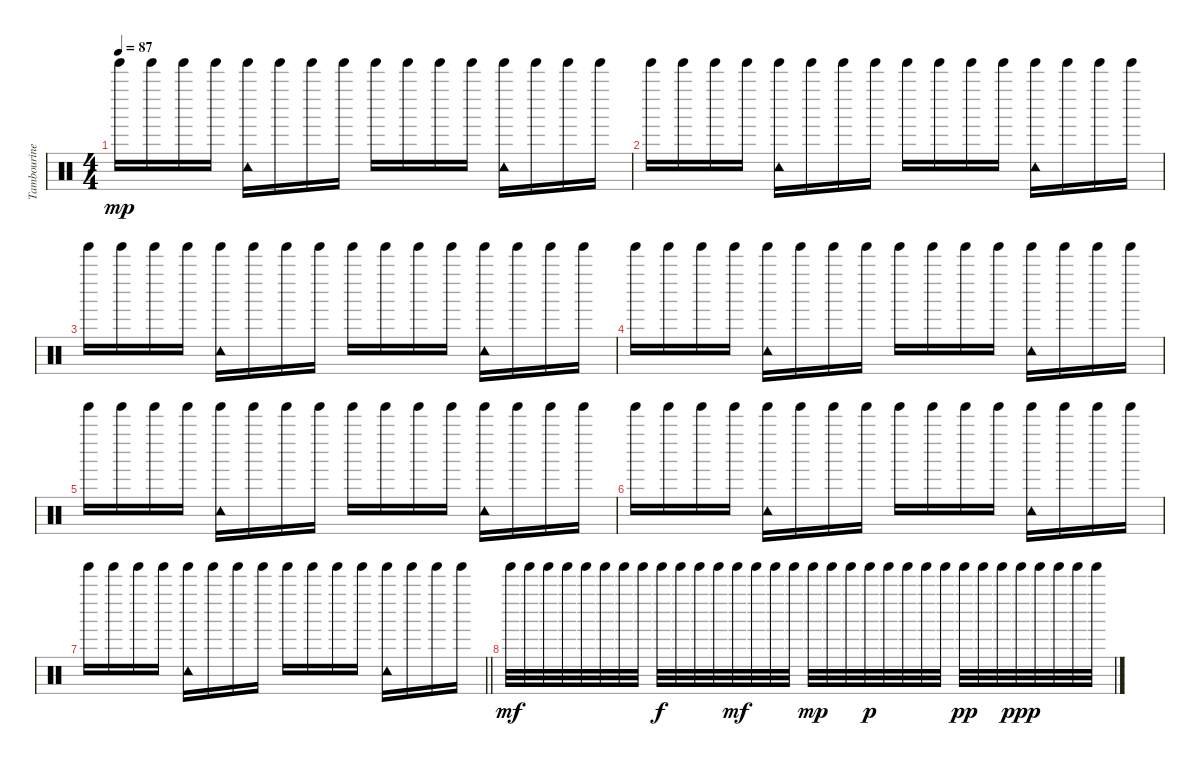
\track ("Tambourine" "Tambourine") {instrument percussion}
\staff {score}
\articulation defaults
\ts (4 4)
\tempo 87
\clef neutral
\ks c "Tinkle Bell (hit)".16{dy mp} "Tinkle Bell (hit)".16 "Tinkle Bell (hit)".16 "Tinkle Bell (hit)".16
("Tinkle Bell (hit)" "Tambourine (hit)").16 "Tinkle Bell (hit)".16 "Tinkle Bell (hit)".16 "Tinkle Bell (hit)".16 "Tinkle Bell (hit)".16 "Tinkle Bell (hit)".16 "Tinkle Bell (hit)".16 "Tinkle Bell (hit)".16 ("Tinkle Bell (hit)" "Tambourine (hit)").16 "Tinkle Bell (hit)".16 "Tinkle Bell (hit)".16 "Tinkle Bell (hit)".16 |
"Tinkle Bell (hit)".16 "Tinkle Bell (hit)".16 "Tinkle Bell (hit)".16 "Tinkle Bell (hit)".16 ("Tinkle Bell (hit)" "Tambourine (hit)").16 "Tinkle Bell (hit)".16 "Tinkle Bell (hit)".16 "Tinkle Bell (hit)".16 "Tinkle Bell (hit)".16 "Tinkle Bell (hit)".16 "Tinkle Bell (hit)".16 "Tinkle Bell (hit)".16 ("Tinkle Bell (hit)" "Tambourine (hit)").16 "Tinkle Bell (hit)".16 "Tinkle Bell (hit)".16 "Tinkle Bell (hit)".16 |
"Tinkle Bell (hit)".16 "Tinkle Bell (hit)".16 "Tinkle Bell (hit)".16 "Tinkle Bell (hit)".16 ("Tinkle Bell (hit)" "Tambourine (hit)").16 "Tinkle Bell (hit)".16 "Tinkle Bell (hit)".16 "Tinkle Bell (hit)".16 "Tinkle Bell (hit)".16 "Tinkle Bell (hit)".16 "Tinkle Bell (hit)".16 "Tinkle Bell (hit)".16 ("Tinkle Bell (hit)" "Tambourine (hit)").16 "Tinkle Bell (hit)".16 "Tinkle Bell (hit)".16 "Tinkle Bell (hit)".16 |
"Tinkle Bell (hit)".16 "Tinkle Bell (hit)".16 "Tinkle Bell (hit)".16 "Tinkle Bell (hit)".16 ("Tinkle Bell (hit)" "Tambourine (hit)").16 "Tinkle Bell (hit)".16 "Tinkle Bell (hit)".16 "Tinkle Bell (hit)".16 "Tinkle Bell (hit)".16 "Tinkle Bell (hit)".16 "Tinkle Bell (hit)".16 "Tinkle Bell (hit)".16 ("Tinkle Bell (hit)" "Tambourine (hit)").16 "Tinkle Bell (hit)".16 "Tinkle Bell (hit)".16 "Tinkle Bell (hit)".16 |
"Tinkle Bell (hit)".16 "Tinkle Bell (hit)".16 "Tinkle Bell (hit)".16 "Tinkle Bell (hit)".16 ("Tinkle Bell (hit)" "Tambourine (hit)").16 "Tinkle Bell (hit)".16 "Tinkle Bell (hit)".16 "Tinkle Bell (hit)".16 "Tinkle Bell (hit)".16 "Tinkle Bell (hit)".16 "Tinkle Bell (hit)".16 "Tinkle Bell (hit)".16 ("Tinkle Bell (hit)" "Tambourine (hit)").16 "Tinkle Bell (hit)".16 "Tinkle Bell (hit)".16 "Tinkle Bell (hit)".16 |
"Tinkle Bell (hit)".16 "Tinkle Bell (hit)".16 "Tinkle Bell (hit)".16 "Tinkle Bell (hit)".16 ("Tinkle Bell (hit)" "Tambourine (hit)").16 "Tinkle Bell (hit)".16 "Tinkle Bell (hit)".16 "Tinkle Bell (hit)".16 "Tinkle Bell (hit)".16 "Tinkle Bell (hit)".16 "Tinkle Bell (hit)".16 "Tinkle Bell (hit)".16 ("Tinkle Bell (hit)" "Tambourine (hit)").16 "Tinkle Bell (hit)".16 "Tinkle Bell (hit)".16 "Tinkle Bell (hit)".16 |
\barLineRight lightlight "Tinkle Bell (hit)".16 "Tinkle Bell (hit)".16 "Tinkle Bell (hit)".16 "Tinkle Bell (hit)".16
("Tinkle Bell (hit)" "Tambourine (hit)").16 "Tinkle Bell (hit)".16 "Tinkle Bell (hit)".16 "Tinkle Bell (hit)".16 "Tinkle Bell (hit)".16 "Tinkle Bell (hit)".16 "Tinkle Bell (hit)".16 "Tinkle Bell (hit)".16 ("Tinkle Bell (hit)" "Tambourine (hit)").16 "Tinkle Bell (hit)".16 "Tinkle Bell (hit)".16 "Tinkle Bell (hit)".16 |
"Tinkle Bell (hit)".32{dy mf} "Tinkle Bell (hit)".32 "Tinkle Bell (hit)".32 "Tinkle Bell (hit)".32 "Tinkle Bell (hit)".32 "Tinkle Bell (hit)".32 "Tinkle Bell (hit)".32 "Tinkle Bell (hit)".32 "Tinkle Bell (hit)".32{dy f} "Tinkle Bell (hit)".32 "Tinkle Bell (hit)".32 "Tinkle Bell (hit)".32 "Tinkle Bell (hit)".32{dy mf} "Tinkle Bell (hit)".32 "Tinkle Bell (hit)".32 "Tinkle Bell (hit)".32 "Tinkle Bell (hit)".32{dy mp} "Tinkle Bell (hit)".32 "Tinkle Bell (hit)".32 "Tinkle Bell (hit)".32{dy p} "Tinkle Bell (hit)".32 "Tinkle Bell (hit)".32 "Tinkle Bell (hit)".32 "Tinkle Bell (hit)".32 "Tinkle Bell (hit)".32{dy pp} "Tinkle Bell (hit)".32 "Tinkle Bell (hit)".32 "Tinkle Bell (hit)".32{dy ppp} "Tinkle Bell (hit)".32 "Tinkle Bell (hit)".32 "Tinkle Bell (hit)".32 "Tinkle Bell (hit)".32
